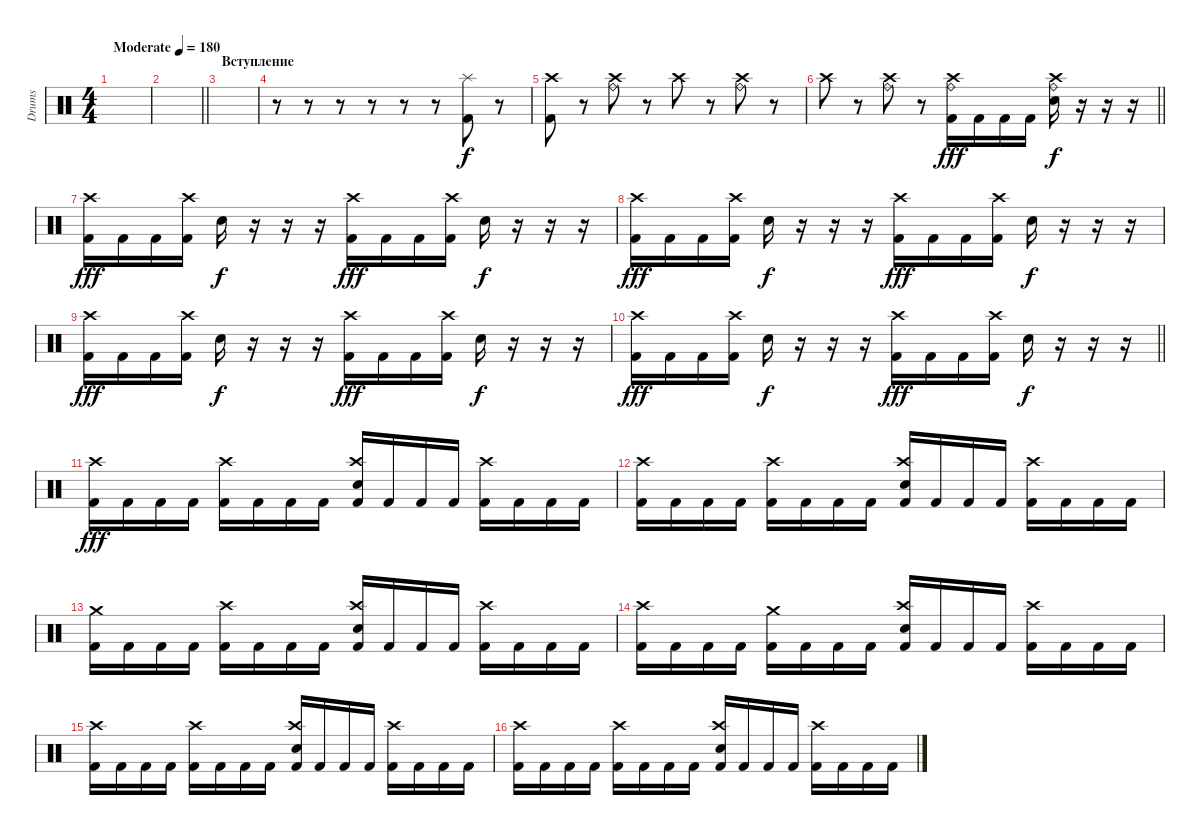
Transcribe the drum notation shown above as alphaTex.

\track ("Drums" "Drums") {instrument percussion}
\staff {score}
\articulation defaults
\ts (4 4)
\tempo (180 "Moderate")
\clef neutral
\ks c
|
\barLineRight lightlight
|
\section ("" "Вступление")
|
r.8 r.8 r.8 r.8 r.8 r.8 ("Splash (hit)" "Kick (hit) 2").8 r.8 |
("Crash high (hit)" "Kick (hit) 2").8 r.8 ("Ride (bell)" "Crash high (hit)").8{dy f} r.8 "Crash high (hit)".8 r.8 ("Ride (bell)" "Crash high (hit)").8 r.8 |
\barLineRight lightlight "Crash high (hit)".8
r.8 ("Ride (bell)" "Crash high (hit)").8 r.8 ("Ride (bell)" "Crash high (hit)" "Kick (hit) 2").16{dy fff} "Kick (hit) 2".16 "Kick (hit) 2".16 "Kick (hit) 2".16 ("Ride (bell)" "Crash high (hit)" "Electric Snare (hit)").16{dy f} r.16 r.16 r.16 |
\section ("" "")
("Crash high (hit)" "Kick (hit) 2").16{dy fff} "Kick (hit) 2".16 "Kick (hit) 2".16 ("Crash high (hit)" "Kick (hit) 2").16 "Electric Snare (hit)".16{dy f} r.16 r.16 r.16 ("Crash high (hit)" "Kick (hit) 2").16{dy fff} "Kick (hit) 2".16 "Kick (hit) 2".16 ("Crash high (hit)" "Kick (hit) 2").16 "Electric Snare (hit)".16{dy f} r.16 r.16 r.16 |
("Crash high (hit)" "Kick (hit) 2").16{dy fff} "Kick (hit) 2".16 "Kick (hit) 2".16 ("Crash high (hit)" "Kick (hit) 2").16 "Electric Snare (hit)".16{dy f} r.16 r.16 r.16 ("Crash high (hit)" "Kick (hit) 2").16{dy fff} "Kick (hit) 2".16 "Kick (hit) 2".16 ("Crash high (hit)" "Kick (hit) 2").16 "Electric Snare (hit)".16{dy f} r.16 r.16 r.16 |
("Crash high (hit)" "Kick (hit) 2").16{dy fff} "Kick (hit) 2".16 "Kick (hit) 2".16 ("Crash high (hit)" "Kick (hit) 2").16 "Electric Snare (hit)".16{dy f} r.16 r.16 r.16 ("Crash high (hit)" "Kick (hit) 2").16{dy fff} "Kick (hit) 2".16 "Kick (hit) 2".16 ("Crash high (hit)" "Kick (hit) 2").16 "Electric Snare (hit)".16{dy f} r.16 r.16 r.16 |
\barLineRight lightlight
("Crash high (hit)" "Kick (hit) 2").16{dy fff} "Kick (hit) 2".16 "Kick (hit) 2".16 ("Crash high (hit)" "Kick (hit) 2").16 "Electric Snare (hit)".16{dy f} r.16 r.16 r.16 ("Crash high (hit)" "Kick (hit) 2").16{dy fff} "Kick (hit) 2".16 "Kick (hit) 2".16 ("Crash high (hit)" "Kick (hit) 2").16 "Electric Snare (hit)".16{dy f} r.16 r.16 r.16 |
\section ("" "")
("Crash high (hit)" "Kick (hit) 2").16{dy fff} "Kick (hit) 2".16 "Kick (hit) 2".16 "Kick (hit) 2".16 ("Crash high (hit)" "Kick (hit) 2").16 "Kick (hit) 2".16 "Kick (hit) 2".16 "Kick (hit) 2".16 ("Crash high (hit)" "Electric Snare (hit)" "Kick (hit) 2").16 "Kick (hit) 2".16 "Kick (hit) 2".16 "Kick (hit) 2".16 ("Crash high (hit)" "Kick (hit) 2").16 "Kick (hit) 2".16 "Kick (hit) 2".16 "Kick (hit) 2".16 |
("Crash high (hit)" "Kick (hit) 2").16 "Kick (hit) 2".16 "Kick (hit) 2".16 "Kick (hit) 2".16 ("Crash high (hit)" "Kick (hit) 2").16 "Kick (hit) 2".16 "Kick (hit) 2".16 "Kick (hit) 2".16 ("Crash high (hit)" "Electric Snare (hit)" "Kick (hit) 2").16 "Kick (hit) 2".16 "Kick (hit) 2".16 "Kick (hit) 2".16 ("Crash high (hit)" "Kick (hit) 2").16 "Kick (hit) 2".16 "Kick (hit) 2".16 "Kick (hit) 2".16 |
("Crash medium (hit)" "Kick (hit) 2").16 "Kick (hit) 2".16 "Kick (hit) 2".16 "Kick (hit) 2".16 ("Crash high (hit)" "Kick (hit) 2").16 "Kick (hit) 2".16 "Kick (hit) 2".16 "Kick (hit) 2".16 ("Crash high (hit)" "Electric Snare (hit)" "Kick (hit) 2").16 "Kick (hit) 2".16 "Kick (hit) 2".16 "Kick (hit) 2".16 ("Crash high (hit)" "Kick (hit) 2").16 "Kick (hit) 2".16 "Kick (hit) 2".16 "Kick (hit) 2".16 |
("Crash high (hit)" "Kick (hit) 2").16 "Kick (hit) 2".16 "Kick (hit) 2".16 "Kick (hit) 2".16 ("Crash medium (hit)" "Kick (hit) 2").16 "Kick (hit) 2".16 "Kick (hit) 2".16 "Kick (hit) 2".16 ("Crash high (hit)" "Electric Snare (hit)" "Kick (hit) 2").16 "Kick (hit) 2".16 "Kick (hit) 2".16 "Kick (hit) 2".16 ("Crash high (hit)" "Kick (hit) 2").16 "Kick (hit) 2".16 "Kick (hit) 2".16 "Kick (hit) 2".16 |
("Crash high (hit)" "Kick (hit) 2").16 "Kick (hit) 2".16 "Kick (hit) 2".16 "Kick (hit) 2".16 ("Crash high (hit)" "Kick (hit) 2").16 "Kick (hit) 2".16 "Kick (hit) 2".16 "Kick (hit) 2".16 ("Crash high (hit)" "Electric Snare (hit)" "Kick (hit) 2").16 "Kick (hit) 2".16 "Kick (hit) 2".16 "Kick (hit) 2".16 ("Crash high (hit)" "Kick (hit) 2").16 "Kick (hit) 2".16 "Kick (hit) 2".16 "Kick (hit) 2".16 |
("Crash high (hit)" "Kick (hit) 2").16 "Kick (hit) 2".16 "Kick (hit) 2".16 "Kick (hit) 2".16 ("Crash high (hit)" "Kick (hit) 2").16 "Kick (hit) 2".16 "Kick (hit) 2".16 "Kick (hit) 2".16 ("Crash high (hit)" "Electric Snare (hit)" "Kick (hit) 2").16 "Kick (hit) 2".16 "Kick (hit) 2".16 "Kick (hit) 2".16 ("Crash high (hit)" "Kick (hit) 2").16 "Kick (hit) 2".16 "Kick (hit) 2".16 "Kick (hit) 2".16
